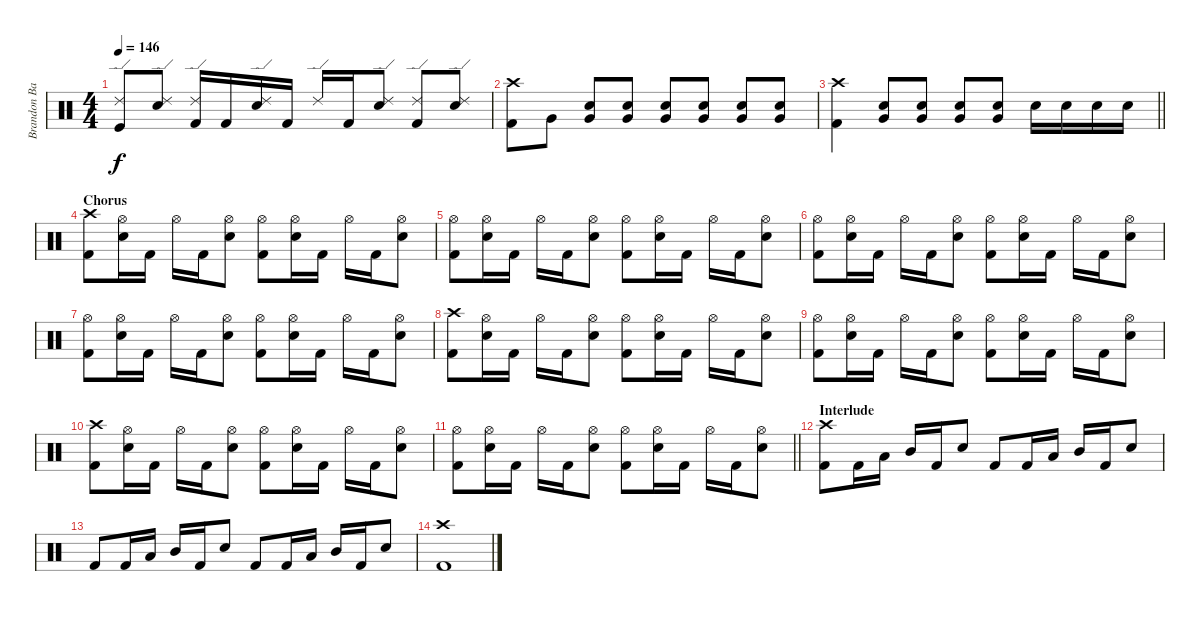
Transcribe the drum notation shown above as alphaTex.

\track ("Brandon Barnes - Drums" "Brandon Ba") {instrument percussion}
\staff {score}
\articulation defaults
\ts (4 4)
\tempo 146
\clef neutral
\ks c
("Ride (edge) 2" "Kick (hit)").8{dy f} ("Ride (edge) 2" "Snare (hit) 2").8 ("Kick (hit) 2" "Ride (edge) 2").16 "Kick (hit) 2".16 ("Snare (hit) 2" "Ride (edge) 2").16 "Kick (hit) 2".16 "Ride (edge) 2".16 "Kick (hit) 2".16 ("Snare (hit) 2" "Ride (edge) 2").8 ("Kick (hit) 2" "Ride (edge) 2").8 ("Snare (hit) 2" "Ride (edge) 2").8 |
("Crash high (hit)" "Kick (hit) 2").8 "Very Low Tom (hit)".8 ("Very Low Tom (hit)" "Snare (hit) 2").8 ("Snare (hit) 2" "Very Low Tom (hit)").8 ("Snare (hit) 2" "Very Low Tom (hit)").8 ("Snare (hit) 2" "Very Low Tom (hit)").8 ("Snare (hit) 2" "Very Low Tom (hit)").8 ("Snare (hit) 2" "Very Low Tom (hit)").8 |
\barLineRight lightlight
("Crash high (hit)" "Kick (hit) 2").4 ("Very Low Tom (hit)" "Snare (hit) 2").8 ("Snare (hit) 2" "Very Low Tom (hit)").8 ("Snare (hit) 2" "Very Low Tom (hit)").8 ("Snare (hit) 2" "Very Low Tom (hit)").8 "Snare (hit) 2".16 "Snare (hit) 2".16 "Snare (hit) 2".16 "Snare (hit) 2".16 |
\section ("" "Chorus")
("Crash high (hit)" "Kick (hit) 2").8 ("Snare (hit) 2" "Hi-Hat (open)").16 "Kick (hit) 2".16 "Hi-Hat (open)".16 "Kick (hit) 2".16 ("Snare (hit) 2" "Hi-Hat (open)").8 ("Hi-Hat (open)" "Kick (hit) 2").8 ("Snare (hit) 2" "Hi-Hat (open)").16 "Kick (hit) 2".16 "Hi-Hat (open)".16 "Kick (hit) 2".16 ("Snare (hit) 2" "Hi-Hat (open)").8 |
("Hi-Hat (open)" "Kick (hit) 2").8 ("Snare (hit) 2" "Hi-Hat (open)").16 "Kick (hit) 2".16 "Hi-Hat (open)".16 "Kick (hit) 2".16 ("Snare (hit) 2" "Hi-Hat (open)").8 ("Hi-Hat (open)" "Kick (hit) 2").8 ("Snare (hit) 2" "Hi-Hat (open)").16 "Kick (hit) 2".16 "Hi-Hat (open)".16 "Kick (hit) 2".16 ("Snare (hit) 2" "Hi-Hat (open)").8 |
("Hi-Hat (open)" "Kick (hit) 2").8 ("Snare (hit) 2" "Hi-Hat (open)").16 "Kick (hit) 2".16 "Hi-Hat (open)".16 "Kick (hit) 2".16 ("Snare (hit) 2" "Hi-Hat (open)").8 ("Hi-Hat (open)" "Kick (hit) 2").8 ("Snare (hit) 2" "Hi-Hat (open)").16 "Kick (hit) 2".16 "Hi-Hat (open)".16 "Kick (hit) 2".16 ("Snare (hit) 2" "Hi-Hat (open)").8 |
("Hi-Hat (open)" "Kick (hit) 2").8 ("Snare (hit) 2" "Hi-Hat (open)").16 "Kick (hit) 2".16 "Hi-Hat (open)".16 "Kick (hit) 2".16 ("Snare (hit) 2" "Hi-Hat (open)").8 ("Hi-Hat (open)" "Kick (hit) 2").8 ("Snare (hit) 2" "Hi-Hat (open)").16 "Kick (hit) 2".16 "Hi-Hat (open)".16 "Kick (hit) 2".16 ("Snare (hit) 2" "Hi-Hat (open)").8 |
("Crash high (hit)" "Kick (hit) 2").8 ("Snare (hit) 2" "Hi-Hat (open)").16 "Kick (hit) 2".16 "Hi-Hat (open)".16 "Kick (hit) 2".16 ("Snare (hit) 2" "Hi-Hat (open)").8 ("Hi-Hat (open)" "Kick (hit) 2").8 ("Snare (hit) 2" "Hi-Hat (open)").16 "Kick (hit) 2".16 "Hi-Hat (open)".16 "Kick (hit) 2".16 ("Snare (hit) 2" "Hi-Hat (open)").8 |
("Hi-Hat (open)" "Kick (hit) 2").8 ("Snare (hit) 2" "Hi-Hat (open)").16 "Kick (hit) 2".16 "Hi-Hat (open)".16 "Kick (hit) 2".16 ("Snare (hit) 2" "Hi-Hat (open)").8 ("Hi-Hat (open)" "Kick (hit) 2").8 ("Snare (hit) 2" "Hi-Hat (open)").16 "Kick (hit) 2".16 "Hi-Hat (open)".16 "Kick (hit) 2".16 ("Snare (hit) 2" "Hi-Hat (open)").8 |
("Crash high (hit)" "Kick (hit) 2").8 ("Snare (hit) 2" "Hi-Hat (open)").16 "Kick (hit) 2".16 "Hi-Hat (open)".16 "Kick (hit) 2".16 ("Snare (hit) 2" "Hi-Hat (open)").8 ("Hi-Hat (open)" "Kick (hit) 2").8 ("Snare (hit) 2" "Hi-Hat (open)").16 "Kick (hit) 2".16 "Hi-Hat (open)".16 "Kick (hit) 2".16 ("Snare (hit) 2" "Hi-Hat (open)").8 |
\barLineRight lightlight
("Hi-Hat (open)" "Kick (hit) 2").8 ("Snare (hit) 2" "Hi-Hat (open)").16 "Kick (hit) 2".16 "Hi-Hat (open)".16 "Kick (hit) 2".16 ("Snare (hit) 2" "Hi-Hat (open)").8 ("Hi-Hat (open)" "Kick (hit) 2").8 ("Snare (hit) 2" "Hi-Hat (open)").16 "Kick (hit) 2".16 "Hi-Hat (open)".16 "Kick (hit) 2".16 ("Snare (hit) 2" "Hi-Hat (open)").8 |
\section ("" "Interlude")
("Crash high (hit)" "Kick (hit) 2").8 "Kick (hit) 2".16 "Low Tom (hit)".16 "Mid Tom (hit)".16 "Kick (hit) 2".16 "Snare (hit) 2".8 "Kick (hit) 2".8 "Kick (hit) 2".16 "Low Tom (hit)".16 "Mid Tom (hit)".16 "Kick (hit) 2".16 "Snare (hit) 2".8 |
"Kick (hit) 2".8 "Kick (hit) 2".16 "Low Tom (hit)".16 "Mid Tom (hit)".16 "Kick (hit) 2".16 "Snare (hit) 2".8 "Kick (hit) 2".8 "Kick (hit) 2".16 "Low Tom (hit)".16 "Mid Tom (hit)".16 "Kick (hit) 2".16 "Snare (hit) 2".8 |
("Crash high (hit)" "Kick (hit) 2").1
